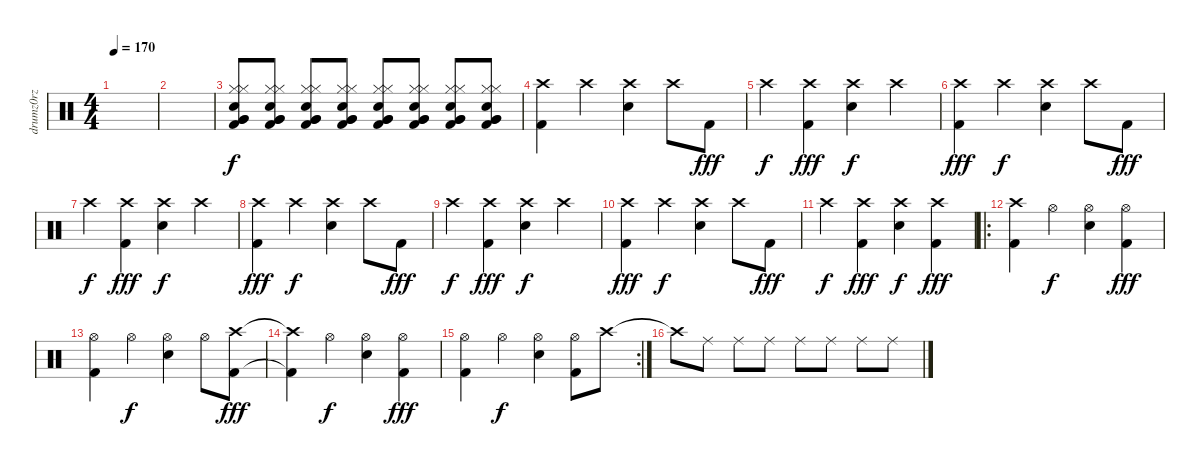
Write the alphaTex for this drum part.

\track ("drumz0rz" "drumz0rz") {instrument percussion}
\staff {score}
\articulation defaults
\ts (4 4)
\tempo 170
\clef neutral
\ks c
|
|
("Very Low Tom (hit)" "Very Low Tom (hit)" "Hi-Hat (closed)" "Hi-Hat (closed)" "Snare (hit) 2" "Kick (hit) 2").8 ("Very Low Tom (hit)" "Very Low Tom (hit)" "Hi-Hat (closed)" "Hi-Hat (closed)" "Snare (hit) 2" "Kick (hit) 2").8 ("Very Low Tom (hit)" "Very Low Tom (hit)" "Hi-Hat (closed)" "Hi-Hat (closed)" "Snare (hit) 2" "Kick (hit) 2").8 ("Very Low Tom (hit)" "Very Low Tom (hit)" "Hi-Hat (closed)" "Hi-Hat (closed)" "Snare (hit) 2" "Kick (hit) 2").8 ("Very Low Tom (hit)" "Very Low Tom (hit)" "Hi-Hat (closed)" "Hi-Hat (closed)" "Snare (hit) 2" "Kick (hit) 2").8 ("Very Low Tom (hit)" "Very Low Tom (hit)" "Hi-Hat (closed)" "Hi-Hat (closed)" "Snare (hit) 2" "Kick (hit) 2").8 ("Very Low Tom (hit)" "Very Low Tom (hit)" "Hi-Hat (closed)" "Hi-Hat (closed)" "Snare (hit) 2" "Kick (hit) 2").8 ("Very Low Tom (hit)" "Very Low Tom (hit)" "Hi-Hat (closed)" "Hi-Hat (closed)" "Snare (hit) 2" "Kick (hit) 2").8 |
("Crash high (hit)" "Kick (hit) 2").4 "Crash high (hit)".4{dy f} ("Crash high (hit)" "Electric Snare (hit)").4 "Crash high (hit)".8 "Kick (hit) 2".8{dy fff} |
"Crash high (hit)".4{dy f} ("Crash high (hit)" "Kick (hit) 2").4{dy fff} ("Crash high (hit)" "Electric Snare (hit)").4{dy f} "Crash high (hit)".4 |
("Crash high (hit)" "Kick (hit) 2").4{dy fff} "Crash high (hit)".4{dy f} ("Crash high (hit)" "Electric Snare (hit)").4 "Crash high (hit)".8 "Kick (hit) 2".8{dy fff} |
"Crash high (hit)".4{dy f} ("Crash high (hit)" "Kick (hit) 2").4{dy fff} ("Crash high (hit)" "Electric Snare (hit)").4{dy f} "Crash high (hit)".4 |
("Crash high (hit)" "Kick (hit) 2").4{dy fff} "Crash high (hit)".4{dy f} ("Crash high (hit)" "Electric Snare (hit)").4 "Crash high (hit)".8 "Kick (hit) 2".8{dy fff} |
"Crash high (hit)".4{dy f} ("Crash high (hit)" "Kick (hit) 2").4{dy fff} ("Crash high (hit)" "Electric Snare (hit)").4{dy f} "Crash high (hit)".4 |
("Crash high (hit)" "Kick (hit) 2").4{dy fff} "Crash high (hit)".4{dy f} ("Crash high (hit)" "Electric Snare (hit)").4 "Crash high (hit)".8 "Kick (hit) 2".8{dy fff} |
"Crash high (hit)".4{dy f} ("Crash high (hit)" "Kick (hit) 2").4{dy fff} ("Crash high (hit)" "Electric Snare (hit)").4{dy f} ("Crash high (hit)" "Kick (hit) 2").4{dy fff} |
\ro
("Crash high (hit)" "Kick (hit) 2").4 "Hi-Hat (open)".4{dy f} ("Hi-Hat (open)" "Electric Snare (hit)").4 ("Hi-Hat (open)" "Kick (hit) 2").4{dy fff} |
("Hi-Hat (open)" "Kick (hit) 2").4 "Hi-Hat (open)".4{dy f} ("Hi-Hat (open)" "Electric Snare (hit)").4 "Hi-Hat (open)".8 ("Crash high (hit)" "Kick (hit) 2").8{dy fff} |
("Crash high (hit)"{t} "Kick (hit) 2"{t}).4 "Hi-Hat (open)".4{dy f} ("Hi-Hat (open)" "Electric Snare (hit)").4 ("Hi-Hat (open)" "Kick (hit) 2").4{dy fff} |
\rc 2
("Hi-Hat (open)" "Kick (hit) 2").4 "Hi-Hat (open)".4{dy f} ("Hi-Hat (open)" "Electric Snare (hit)").4 ("Hi-Hat (open)" "Kick (hit) 2").8 "Crash high (hit)".8 |
"Crash high (hit)"{t}.8 "Ride (middle)".8 "Ride (middle)".8 "Ride (middle)".8 "Ride (middle)".8 "Ride (middle)".8 "Ride (middle)".8 "Ride (middle)".8
